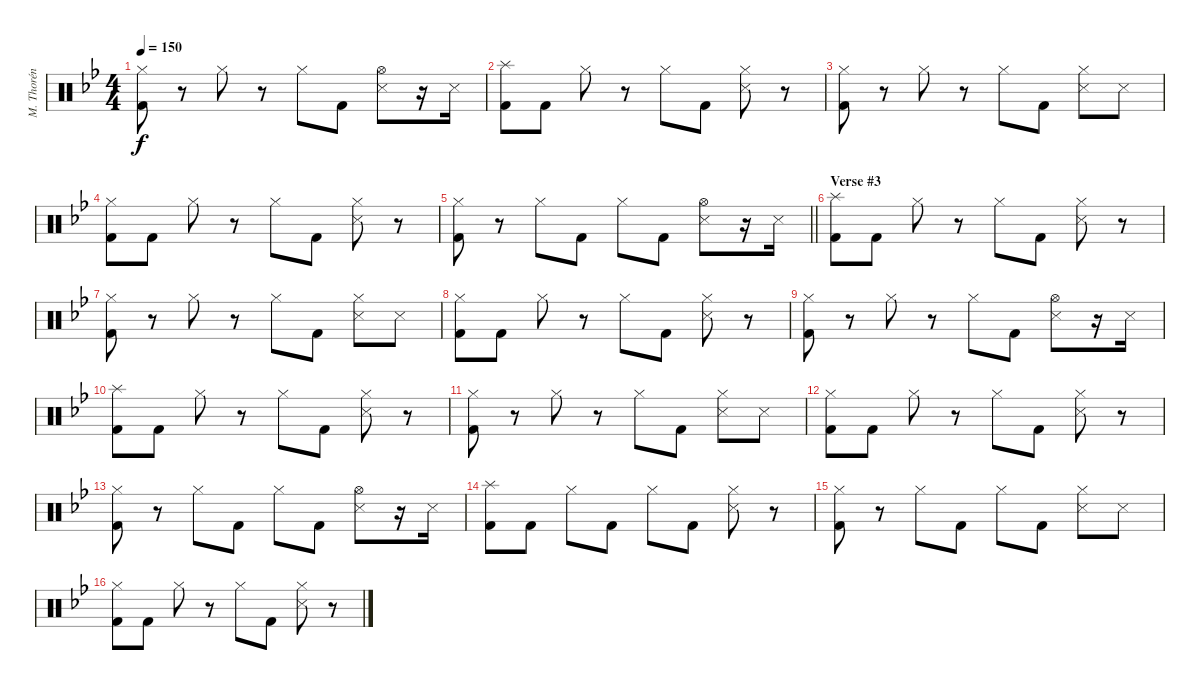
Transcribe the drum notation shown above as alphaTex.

\track ("M. Thorén (Drums)" "M. Thorén ") {instrument percussion}
\staff {score}
\articulation defaults
\ts (4 4)
\tempo 150
\clef neutral
\ks gminor
("Hi-Hat (closed)" "Kick (hit) 2").8{dy f} r.8 "Hi-Hat (closed)".8 r.8 "Hi-Hat (closed)".8 "Kick (hit) 2".8 ("Hi-Hat (open)" "Snare (side stick) 3").8 r.16 "Snare (side stick) 3".16 |
("Splash (hit)" "Kick (hit) 2").8 "Kick (hit) 2".8 "Hi-Hat (closed)".8 r.8 "Hi-Hat (closed)".8 "Kick (hit) 2".8 ("Hi-Hat (closed)" "Snare (side stick) 3").8 r.8 |
("Hi-Hat (closed)" "Kick (hit) 2").8 r.8 "Hi-Hat (closed)".8 r.8 "Hi-Hat (closed)".8 "Kick (hit) 2".8 ("Hi-Hat (closed)" "Snare (side stick) 3").8 "Snare (side stick) 3".8 |
("Hi-Hat (closed)" "Kick (hit) 2").8 "Kick (hit) 2".8 "Hi-Hat (closed)".8 r.8 "Hi-Hat (closed)".8 "Kick (hit) 2".8 ("Hi-Hat (closed)" "Snare (side stick) 3").8 r.8 |
\barLineRight lightlight
("Hi-Hat (closed)" "Kick (hit) 2").8 r.8 "Hi-Hat (closed)".8 "Kick (hit) 2".8 "Hi-Hat (closed)".8 "Kick (hit) 2".8 ("Hi-Hat (open)" "Snare (side stick) 3").8 r.16 "Snare (side stick) 3".16 |
\section ("" "Verse #3")
("Splash (hit)" "Kick (hit) 2").8 "Kick (hit) 2".8 "Hi-Hat (closed)".8 r.8 "Hi-Hat (closed)".8 "Kick (hit) 2".8 ("Hi-Hat (closed)" "Snare (side stick) 3").8 r.8 |
("Hi-Hat (closed)" "Kick (hit) 2").8 r.8 "Hi-Hat (closed)".8 r.8 "Hi-Hat (closed)".8 "Kick (hit) 2".8 ("Hi-Hat (closed)" "Snare (side stick) 3").8 "Snare (side stick) 3".8 |
("Hi-Hat (closed)" "Kick (hit) 2").8 "Kick (hit) 2".8 "Hi-Hat (closed)".8 r.8 "Hi-Hat (closed)".8 "Kick (hit) 2".8 ("Hi-Hat (closed)" "Snare (side stick) 3").8 r.8 |
("Hi-Hat (closed)" "Kick (hit) 2").8 r.8 "Hi-Hat (closed)".8 r.8 "Hi-Hat (closed)".8 "Kick (hit) 2".8 ("Hi-Hat (open)" "Snare (side stick) 3").8 r.16 "Snare (side stick) 3".16 |
("Splash (hit)" "Kick (hit) 2").8 "Kick (hit) 2".8 "Hi-Hat (closed)".8 r.8 "Hi-Hat (closed)".8 "Kick (hit) 2".8 ("Hi-Hat (closed)" "Snare (side stick) 3").8 r.8 |
("Hi-Hat (closed)" "Kick (hit) 2").8 r.8 "Hi-Hat (closed)".8 r.8 "Hi-Hat (closed)".8 "Kick (hit) 2".8 ("Hi-Hat (closed)" "Snare (side stick) 3").8 "Snare (side stick) 3".8 |
("Hi-Hat (closed)" "Kick (hit) 2").8 "Kick (hit) 2".8 "Hi-Hat (closed)".8 r.8 "Hi-Hat (closed)".8 "Kick (hit) 2".8 ("Hi-Hat (closed)" "Snare (side stick) 3").8 r.8 |
("Hi-Hat (closed)" "Kick (hit) 2").8 r.8 "Hi-Hat (closed)".8 "Kick (hit) 2".8 "Hi-Hat (closed)".8 "Kick (hit) 2".8 ("Hi-Hat (open)" "Snare (side stick) 3").8 r.16 "Snare (side stick) 3".16 |
("Splash (hit)" "Kick (hit) 2").8 "Kick (hit) 2".8 "Hi-Hat (closed)".8 "Kick (hit) 2".8 "Hi-Hat (closed)".8 "Kick (hit) 2".8 ("Hi-Hat (closed)" "Snare (side stick) 3").8 r.8 |
("Hi-Hat (closed)" "Kick (hit) 2").8 r.8 "Hi-Hat (closed)".8 "Kick (hit) 2".8 "Hi-Hat (closed)".8 "Kick (hit) 2".8 ("Hi-Hat (closed)" "Snare (side stick) 3").8 "Snare (side stick) 3".8 |
("Hi-Hat (closed)" "Kick (hit) 2").8 "Kick (hit) 2".8 "Hi-Hat (closed)".8 r.8 "Hi-Hat (closed)".8 "Kick (hit) 2".8 ("Hi-Hat (closed)" "Snare (side stick) 3").8 r.8
